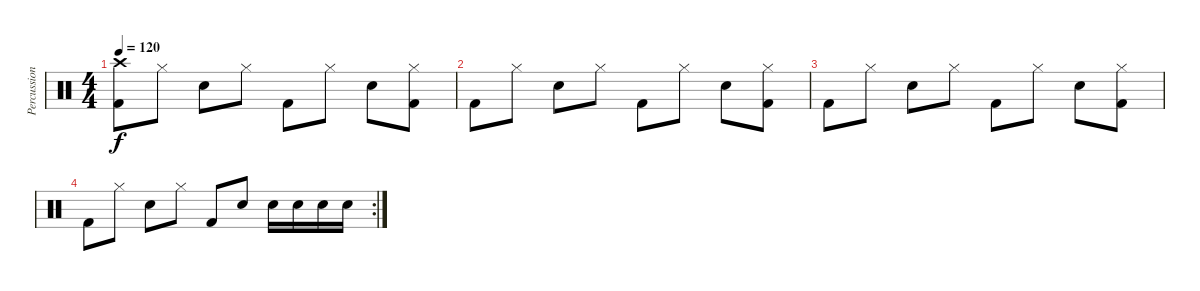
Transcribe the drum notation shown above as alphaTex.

\track ("Percussions" "Percussion") {instrument percussion}
\staff {score}
\articulation defaults
\ts (4 4)
\tempo 120
\clef neutral
\ks c
("Kick (hit) 2" "Crash high (hit)").8{dy f} "Hi-Hat (closed)".8 "Snare (hit) 2".8 "Hi-Hat (closed)".8 "Kick (hit) 2".8 "Hi-Hat (closed)".8 "Snare (hit) 2".8 ("Kick (hit) 2" "Hi-Hat (closed)").8 |
"Kick (hit) 2".8 "Hi-Hat (closed)".8 "Snare (hit) 2".8 "Hi-Hat (closed)".8 "Kick (hit) 2".8 "Hi-Hat (closed)".8 "Snare (hit) 2".8 ("Kick (hit) 2" "Hi-Hat (closed)").8 |
"Kick (hit) 2".8 "Hi-Hat (closed)".8 "Snare (hit) 2".8 "Hi-Hat (closed)".8 "Kick (hit) 2".8 "Hi-Hat (closed)".8 "Snare (hit) 2".8 ("Kick (hit) 2" "Hi-Hat (closed)").8 |
\rc 2 "Kick (hit) 2".8 "Hi-Hat (closed)".8 "Snare (hit) 2".8 "Hi-Hat (closed)".8 "Kick (hit) 2".8 "Snare (hit) 2".8 "Snare (hit) 2".16 "Snare (hit) 2".16 "Snare (hit) 2".16 "Snare (hit) 2".16
